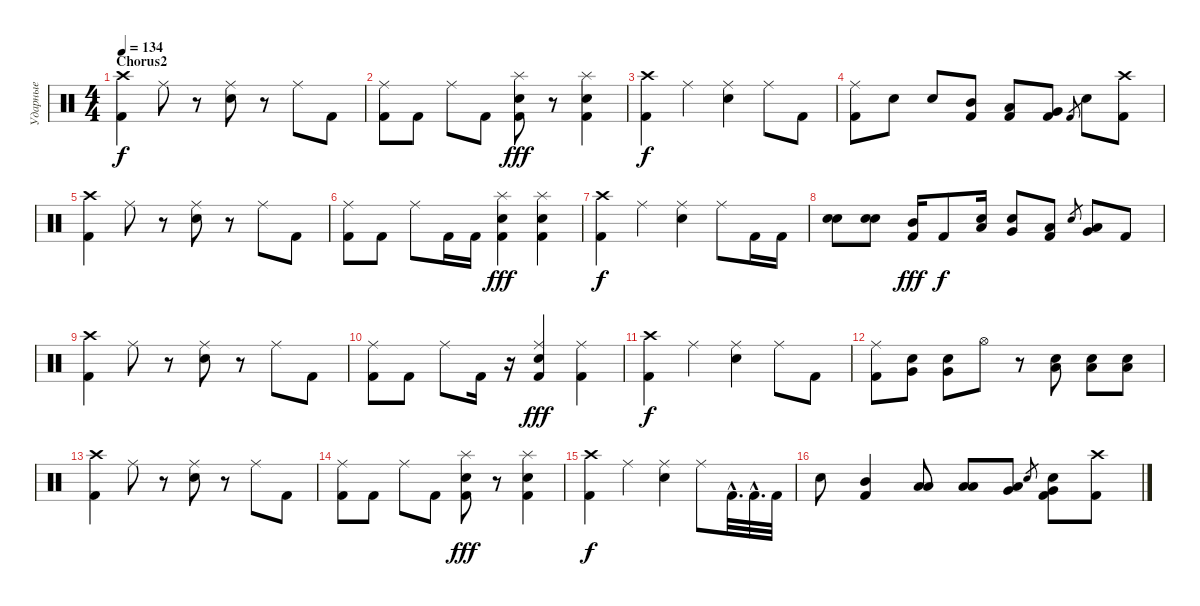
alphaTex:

\track ("Ударные" "Ударные") {instrument percussion}
\staff {score}
\articulation defaults
\ts (4 4)
\section ("" "Chorus2")
\tempo 134
\clef neutral
\ks c
("Crash high (hit)" "Kick (hit) 2").4{dy f} "Ride (middle)".8 r.8 ("Ride (middle)" "Electric Snare (hit)").8 r.8 "Ride (middle)".8 "Kick (hit) 2".8 |
("Ride (middle)" "Kick (hit) 2").8 "Kick (hit) 2".8 "Ride (middle)".8 "Kick (hit) 2".8 ("Splash (hit)" "Electric Snare (hit)" "Kick (hit) 2").8{dy fff} r.8 ("Splash (hit)" "Electric Snare (hit)" "Kick (hit) 2").4 |
("Crash high (hit)" "Kick (hit) 2").4{dy f} "Ride (middle)".4 ("Ride (middle)" "Electric Snare (hit)").4 "Ride (middle)".8 "Kick (hit) 2".8 |
("Ride (middle)" "Kick (hit) 2").8 "Electric Snare (hit)".8 "Electric Snare (hit)".8 ("Mid Tom (hit)" "Kick (hit) 2").8 ("Low Tom (hit)" "Kick (hit) 2").8 ("Very Low Tom (hit)" "Kick (hit) 2").8 "Kick (hit) 2".8{gr} "Electric Snare (hit)".8 ("Crash high (hit)" "Kick (hit) 2").8 |
("Crash high (hit)" "Kick (hit) 2").4 "Ride (middle)".8 r.8 ("Ride (middle)" "Electric Snare (hit)").8 r.8 "Ride (middle)".8 "Kick (hit) 2".8 |
("Ride (middle)" "Kick (hit) 2").8 "Kick (hit) 2".8 "Ride (middle)".8 "Kick (hit) 2".16 "Kick (hit) 2".16 ("Splash (hit)" "Electric Snare (hit)" "Kick (hit) 2").4{dy fff} ("Splash (hit)" "Electric Snare (hit)" "Kick (hit) 2").4 |
("Crash high (hit)" "Kick (hit) 2").4{dy f} "Ride (middle)".4 ("Ride (middle)" "Electric Snare (hit)").4 "Ride (middle)".8 "Kick (hit) 2".16 "Kick (hit) 2".16 |
("Electric Snare (hit)" "Electric Snare (hit)").8 ("Electric Snare (hit)" "Electric Snare (hit)").8 ("Mid Tom (hit)" "Kick (hit) 2").16{dy fff} "Kick (hit) 2".8{dy f} ("Low Tom (hit)" "Electric Snare (hit)").16 ("Very Low Tom (hit)" "Electric Snare (hit)").8 ("Low Tom (hit)" "Kick (hit) 2").8 "Electric Snare (hit)".8{gr} ("Very Low Tom (hit)" "Low Floor Tom (hit)").8 "Kick (hit) 2".8 |
("Crash high (hit)" "Kick (hit) 2").4 "Ride (middle)".8 r.8 ("Ride (middle)" "Electric Snare (hit)").8 r.8 "Ride (middle)".8 "Kick (hit) 2".8 |
("Ride (middle)" "Kick (hit) 2").8 "Kick (hit) 2".8 "Ride (middle)".8 "Kick (hit) 2".16 r.16 ("Ride (middle)" "Electric Snare (hit)" "Kick (hit) 2").4{dy fff} ("Ride (middle)" "Kick (hit) 2").4 |
("Crash high (hit)" "Kick (hit) 2").4{dy f} "Ride (middle)".4 ("Ride (middle)" "Electric Snare (hit)").4 "Ride (middle)".8 "Kick (hit) 2".8 |
("Ride (middle)" "Kick (hit) 2").8 ("Electric Snare (hit)" "Very Low Tom (hit)").8 ("Electric Snare (hit)" "Very Low Tom (hit)").8 "Hi-Hat (open)".8 r.8 ("Electric Snare (hit)" "Low Floor Tom (hit)").8 ("Electric Snare (hit)" "Low Floor Tom (hit)").8 ("Electric Snare (hit)" "Low Floor Tom (hit)").8 |
("Crash high (hit)" "Kick (hit) 2").4 "Ride (middle)".8 r.8 ("Ride (middle)" "Electric Snare (hit)").8 r.8 "Ride (middle)".8 "Kick (hit) 2".8 |
("Ride (middle)" "Kick (hit) 2").8 "Kick (hit) 2".8 "Ride (middle)".8 "Kick (hit) 2".8 ("Splash (hit)" "Electric Snare (hit)" "Kick (hit) 2").8{dy fff} r.8 ("Splash (hit)" "Electric Snare (hit)" "Kick (hit) 2").4 |
("Crash high (hit)" "Kick (hit) 2").4{dy f} "Ride (middle)".4 ("Ride (middle)" "Electric Snare (hit)").4 "Ride (middle)".8 "Kick (hit) 2"{hac}.32{d} "Kick (hit) 2"{hac}.32{d} "Kick (hit) 2".32 |
"Electric Snare (hit)".8 ("Mid Tom (hit)" "Kick (hit) 2").4 ("Low Tom (hit)" "Low Tom (hit)").8 ("Low Tom (hit)" "Low Tom (hit)").8 ("Low Tom (hit)" "Very Low Tom (hit)").8 "Electric Snare (hit)".8{gr} ("Electric Snare (hit)" "Very Low Tom (hit)" "Kick (hit) 2").8 ("Crash high (hit)" "Kick (hit) 2").8
